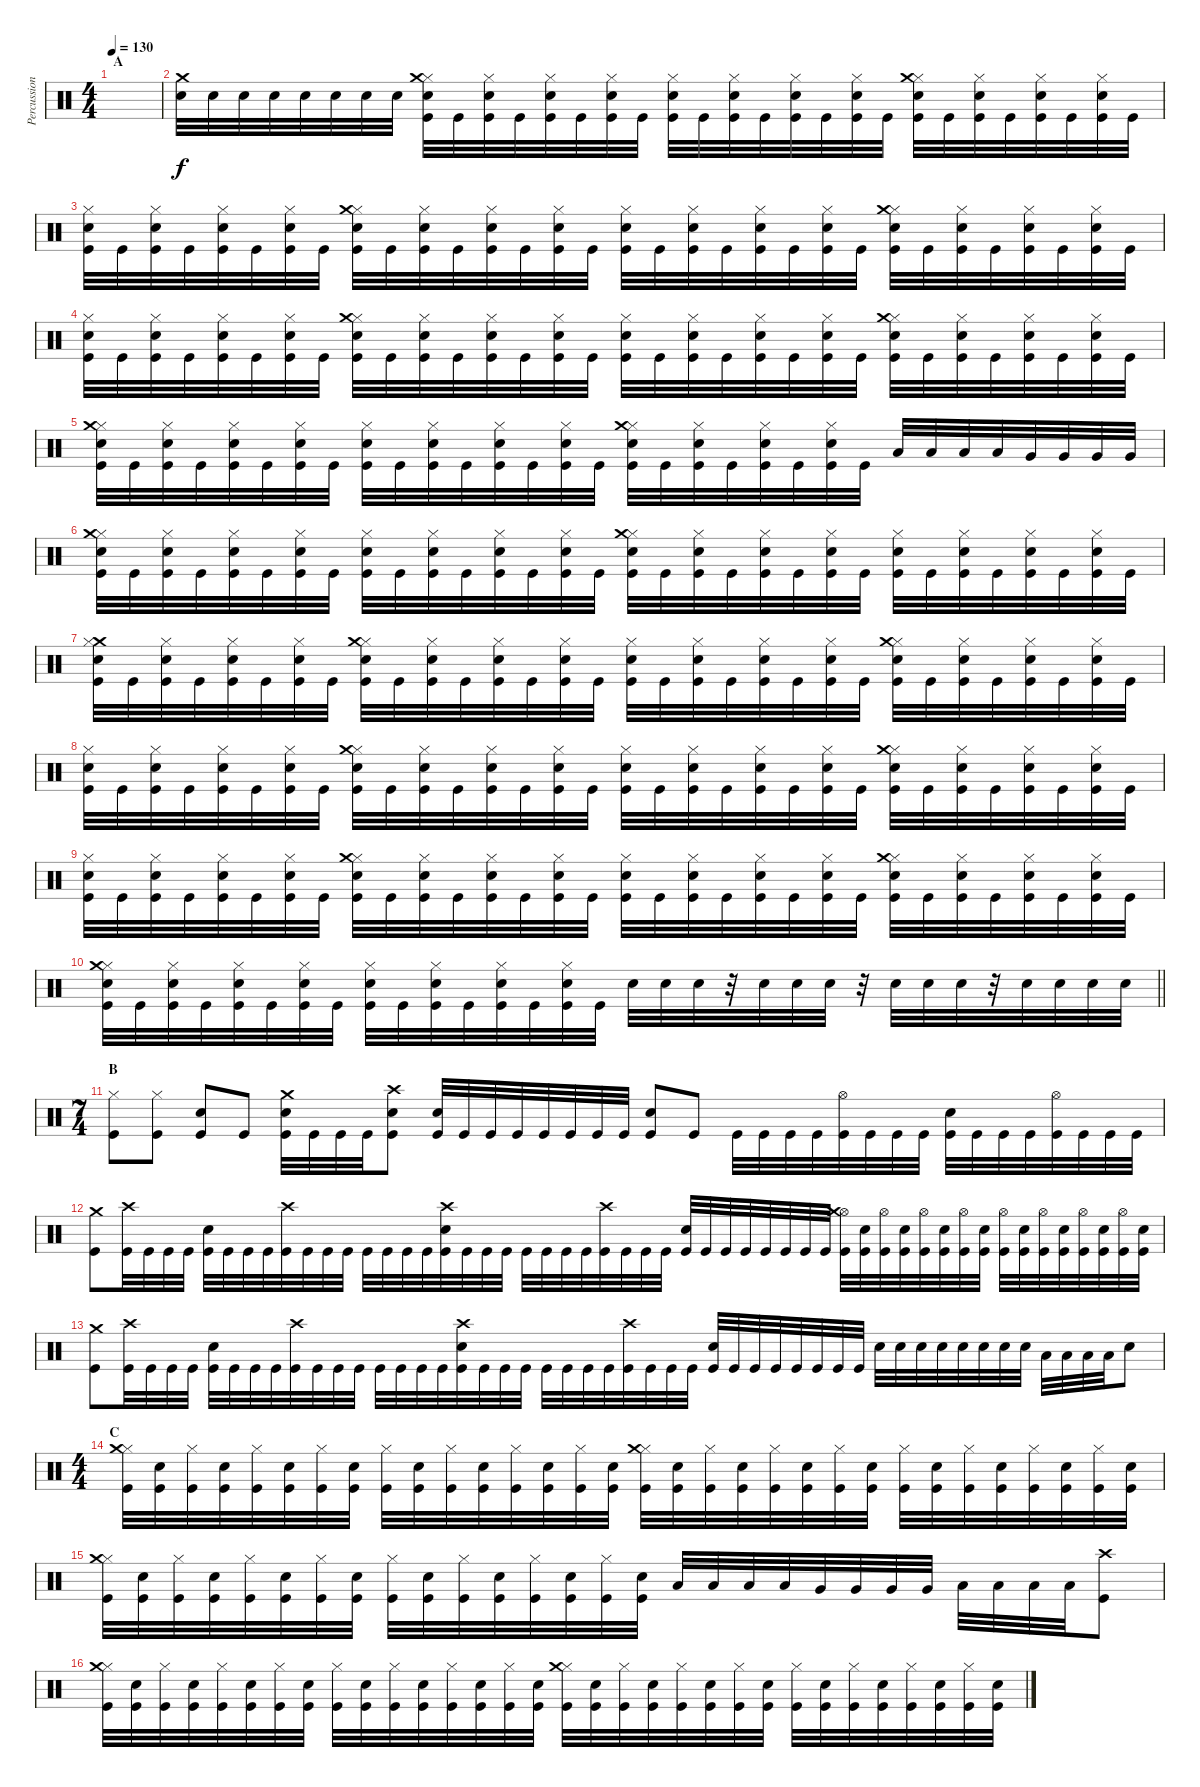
\track ("Percussion" "Percussion") {instrument percussion}
\staff {score}
\articulation defaults
\ts (4 4)
\section ("" "A")
\tempo 130
\clef neutral
\ks c
|
("Snare (hit) 2" "Crash medium (hit)").32 "Snare (hit) 2".32 "Snare (hit) 2".32 "Snare (hit) 2".32 "Snare (hit) 2".32 "Snare (hit) 2".32 "Snare (hit) 2".32 "Snare (hit) 2".32 ("Kick (hit)" "Snare (hit) 2" "Hi-Hat (closed)" "Crash medium (hit)").32 "Kick (hit)".32 ("Kick (hit)" "Snare (hit) 2" "Hi-Hat (closed)").32 "Kick (hit)".32 ("Kick (hit)" "Snare (hit) 2" "Hi-Hat (closed)").32 "Kick (hit)".32 ("Kick (hit)" "Snare (hit) 2" "Hi-Hat (closed)").32 "Kick (hit)".32 ("Kick (hit)" "Snare (hit) 2" "Hi-Hat (closed)").32 "Kick (hit)".32 ("Kick (hit)" "Snare (hit) 2" "Hi-Hat (closed)").32 "Kick (hit)".32 ("Kick (hit)" "Snare (hit) 2" "Hi-Hat (closed)").32 "Kick (hit)".32 ("Kick (hit)" "Snare (hit) 2" "Hi-Hat (closed)").32 "Kick (hit)".32 ("Kick (hit)" "Snare (hit) 2" "Hi-Hat (closed)" "Crash medium (hit)").32 "Kick (hit)".32 ("Kick (hit)" "Snare (hit) 2" "Hi-Hat (closed)").32 "Kick (hit)".32 ("Kick (hit)" "Snare (hit) 2" "Hi-Hat (closed)").32 "Kick (hit)".32 ("Kick (hit)" "Snare (hit) 2" "Hi-Hat (closed)").32 "Kick (hit)".32 |
("Kick (hit)" "Snare (hit) 2" "Hi-Hat (closed)").32 "Kick (hit)".32 ("Kick (hit)" "Snare (hit) 2" "Hi-Hat (closed)").32 "Kick (hit)".32 ("Kick (hit)" "Snare (hit) 2" "Hi-Hat (closed)").32 "Kick (hit)".32 ("Kick (hit)" "Snare (hit) 2" "Hi-Hat (closed)").32 "Kick (hit)".32 ("Kick (hit)" "Snare (hit) 2" "Hi-Hat (closed)" "Crash medium (hit)").32 "Kick (hit)".32 ("Kick (hit)" "Snare (hit) 2" "Hi-Hat (closed)").32 "Kick (hit)".32 ("Kick (hit)" "Snare (hit) 2" "Hi-Hat (closed)").32 "Kick (hit)".32 ("Kick (hit)" "Snare (hit) 2" "Hi-Hat (closed)").32 "Kick (hit)".32 ("Kick (hit)" "Snare (hit) 2" "Hi-Hat (closed)").32 "Kick (hit)".32 ("Kick (hit)" "Snare (hit) 2" "Hi-Hat (closed)").32 "Kick (hit)".32 ("Kick (hit)" "Snare (hit) 2" "Hi-Hat (closed)").32 "Kick (hit)".32 ("Kick (hit)" "Snare (hit) 2" "Hi-Hat (closed)").32 "Kick (hit)".32 ("Kick (hit)" "Snare (hit) 2" "Hi-Hat (closed)" "Crash medium (hit)").32 "Kick (hit)".32 ("Kick (hit)" "Snare (hit) 2" "Hi-Hat (closed)").32 "Kick (hit)".32 ("Kick (hit)" "Snare (hit) 2" "Hi-Hat (closed)").32 "Kick (hit)".32 ("Kick (hit)" "Snare (hit) 2" "Hi-Hat (closed)").32 "Kick (hit)".32 |
("Kick (hit)" "Snare (hit) 2" "Hi-Hat (closed)").32 "Kick (hit)".32 ("Kick (hit)" "Snare (hit) 2" "Hi-Hat (closed)").32 "Kick (hit)".32 ("Kick (hit)" "Snare (hit) 2" "Hi-Hat (closed)").32 "Kick (hit)".32 ("Kick (hit)" "Snare (hit) 2" "Hi-Hat (closed)").32 "Kick (hit)".32 ("Kick (hit)" "Snare (hit) 2" "Hi-Hat (closed)" "Crash medium (hit)").32 "Kick (hit)".32 ("Kick (hit)" "Snare (hit) 2" "Hi-Hat (closed)").32 "Kick (hit)".32 ("Kick (hit)" "Snare (hit) 2" "Hi-Hat (closed)").32 "Kick (hit)".32 ("Kick (hit)" "Snare (hit) 2" "Hi-Hat (closed)").32 "Kick (hit)".32 ("Kick (hit)" "Snare (hit) 2" "Hi-Hat (closed)").32 "Kick (hit)".32 ("Kick (hit)" "Snare (hit) 2" "Hi-Hat (closed)").32 "Kick (hit)".32 ("Kick (hit)" "Snare (hit) 2" "Hi-Hat (closed)").32 "Kick (hit)".32 ("Kick (hit)" "Snare (hit) 2" "Hi-Hat (closed)").32 "Kick (hit)".32 ("Kick (hit)" "Snare (hit) 2" "Hi-Hat (closed)" "Crash medium (hit)").32 "Kick (hit)".32 ("Kick (hit)" "Snare (hit) 2" "Hi-Hat (closed)").32 "Kick (hit)".32 ("Kick (hit)" "Snare (hit) 2" "Hi-Hat (closed)").32 "Kick (hit)".32 ("Kick (hit)" "Snare (hit) 2" "Hi-Hat (closed)").32 "Kick (hit)".32 |
("Kick (hit)" "Snare (hit) 2" "Hi-Hat (closed)" "Crash medium (hit)").32 "Kick (hit)".32 ("Kick (hit)" "Snare (hit) 2" "Hi-Hat (closed)").32 "Kick (hit)".32 ("Kick (hit)" "Snare (hit) 2" "Hi-Hat (closed)").32 "Kick (hit)".32 ("Kick (hit)" "Snare (hit) 2" "Hi-Hat (closed)").32 "Kick (hit)".32 ("Kick (hit)" "Snare (hit) 2" "Hi-Hat (closed)").32 "Kick (hit)".32 ("Kick (hit)" "Snare (hit) 2" "Hi-Hat (closed)").32 "Kick (hit)".32 ("Kick (hit)" "Snare (hit) 2" "Hi-Hat (closed)").32 "Kick (hit)".32 ("Kick (hit)" "Snare (hit) 2" "Hi-Hat (closed)").32 "Kick (hit)".32 ("Kick (hit)" "Snare (hit) 2" "Hi-Hat (closed)" "Crash medium (hit)").32 "Kick (hit)".32 ("Kick (hit)" "Snare (hit) 2" "Hi-Hat (closed)").32 "Kick (hit)".32 ("Kick (hit)" "Snare (hit) 2" "Hi-Hat (closed)").32 "Kick (hit)".32 ("Kick (hit)" "Snare (hit) 2" "Hi-Hat (closed)").32 "Kick (hit)".32 "Low Tom (hit)".32 "Low Tom (hit)".32 "Low Tom (hit)".32 "Low Tom (hit)".32 "Very Low Tom (hit)".32 "Very Low Tom (hit)".32 "Very Low Tom (hit)".32 "Very Low Tom (hit)".32 |
("Kick (hit)" "Snare (hit) 2" "Hi-Hat (closed)" "Crash medium (hit)").32 "Kick (hit)".32 ("Kick (hit)" "Snare (hit) 2" "Hi-Hat (closed)").32 "Kick (hit)".32 ("Kick (hit)" "Snare (hit) 2" "Hi-Hat (closed)").32 "Kick (hit)".32 ("Kick (hit)" "Snare (hit) 2" "Hi-Hat (closed)").32 "Kick (hit)".32 ("Kick (hit)" "Snare (hit) 2" "Hi-Hat (closed)").32 "Kick (hit)".32 ("Kick (hit)" "Snare (hit) 2" "Hi-Hat (closed)").32 "Kick (hit)".32 ("Kick (hit)" "Snare (hit) 2" "Hi-Hat (closed)").32 "Kick (hit)".32 ("Kick (hit)" "Snare (hit) 2" "Hi-Hat (closed)").32 "Kick (hit)".32 ("Kick (hit)" "Snare (hit) 2" "Hi-Hat (closed)" "Crash medium (hit)").32 "Kick (hit)".32 ("Kick (hit)" "Snare (hit) 2" "Hi-Hat (closed)").32 "Kick (hit)".32 ("Kick (hit)" "Snare (hit) 2" "Hi-Hat (closed)").32 "Kick (hit)".32 ("Kick (hit)" "Snare (hit) 2" "Hi-Hat (closed)").32 "Kick (hit)".32 ("Kick (hit)" "Snare (hit) 2" "Hi-Hat (closed)").32 "Kick (hit)".32 ("Kick (hit)" "Snare (hit) 2" "Hi-Hat (closed)").32 "Kick (hit)".32 ("Kick (hit)" "Snare (hit) 2" "Hi-Hat (closed)").32 "Kick (hit)".32 ("Kick (hit)" "Snare (hit) 2" "Hi-Hat (closed)").32 "Kick (hit)".32 |
("Kick (hit)" "Snare (hit) 2" "Crash medium (hit)" "Hi-Hat (closed)").32 "Kick (hit)".32 ("Kick (hit)" "Snare (hit) 2" "Hi-Hat (closed)").32 "Kick (hit)".32 ("Kick (hit)" "Snare (hit) 2" "Hi-Hat (closed)").32 "Kick (hit)".32 ("Kick (hit)" "Snare (hit) 2" "Hi-Hat (closed)").32 "Kick (hit)".32 ("Kick (hit)" "Snare (hit) 2" "Hi-Hat (closed)" "Crash medium (hit)").32 "Kick (hit)".32 ("Kick (hit)" "Snare (hit) 2" "Hi-Hat (closed)").32 "Kick (hit)".32 ("Kick (hit)" "Snare (hit) 2" "Hi-Hat (closed)").32 "Kick (hit)".32 ("Kick (hit)" "Snare (hit) 2" "Hi-Hat (closed)").32 "Kick (hit)".32 ("Kick (hit)" "Snare (hit) 2" "Hi-Hat (closed)").32 "Kick (hit)".32 ("Kick (hit)" "Snare (hit) 2" "Hi-Hat (closed)").32 "Kick (hit)".32 ("Kick (hit)" "Snare (hit) 2" "Hi-Hat (closed)").32 "Kick (hit)".32 ("Kick (hit)" "Snare (hit) 2" "Hi-Hat (closed)").32 "Kick (hit)".32 ("Kick (hit)" "Snare (hit) 2" "Hi-Hat (closed)" "Crash medium (hit)").32 "Kick (hit)".32 ("Kick (hit)" "Snare (hit) 2" "Hi-Hat (closed)").32 "Kick (hit)".32 ("Kick (hit)" "Snare (hit) 2" "Hi-Hat (closed)").32 "Kick (hit)".32 ("Kick (hit)" "Snare (hit) 2" "Hi-Hat (closed)").32 "Kick (hit)".32 |
("Kick (hit)" "Snare (hit) 2" "Hi-Hat (closed)").32 "Kick (hit)".32 ("Kick (hit)" "Snare (hit) 2" "Hi-Hat (closed)").32 "Kick (hit)".32 ("Kick (hit)" "Snare (hit) 2" "Hi-Hat (closed)").32 "Kick (hit)".32 ("Kick (hit)" "Snare (hit) 2" "Hi-Hat (closed)").32 "Kick (hit)".32 ("Kick (hit)" "Snare (hit) 2" "Hi-Hat (closed)" "Crash medium (hit)").32 "Kick (hit)".32 ("Kick (hit)" "Snare (hit) 2" "Hi-Hat (closed)").32 "Kick (hit)".32 ("Kick (hit)" "Snare (hit) 2" "Hi-Hat (closed)").32 "Kick (hit)".32 ("Kick (hit)" "Snare (hit) 2" "Hi-Hat (closed)").32 "Kick (hit)".32 ("Kick (hit)" "Snare (hit) 2" "Hi-Hat (closed)").32 "Kick (hit)".32 ("Kick (hit)" "Snare (hit) 2" "Hi-Hat (closed)").32 "Kick (hit)".32 ("Kick (hit)" "Snare (hit) 2" "Hi-Hat (closed)").32 "Kick (hit)".32 ("Kick (hit)" "Snare (hit) 2" "Hi-Hat (closed)").32 "Kick (hit)".32 ("Kick (hit)" "Snare (hit) 2" "Hi-Hat (closed)" "Crash medium (hit)").32 "Kick (hit)".32 ("Kick (hit)" "Snare (hit) 2" "Hi-Hat (closed)").32 "Kick (hit)".32 ("Kick (hit)" "Snare (hit) 2" "Hi-Hat (closed)").32 "Kick (hit)".32 ("Kick (hit)" "Snare (hit) 2" "Hi-Hat (closed)").32 "Kick (hit)".32 |
("Kick (hit)" "Snare (hit) 2" "Hi-Hat (closed)").32 "Kick (hit)".32 ("Kick (hit)" "Snare (hit) 2" "Hi-Hat (closed)").32 "Kick (hit)".32 ("Kick (hit)" "Snare (hit) 2" "Hi-Hat (closed)").32 "Kick (hit)".32 ("Kick (hit)" "Snare (hit) 2" "Hi-Hat (closed)").32 "Kick (hit)".32 ("Kick (hit)" "Snare (hit) 2" "Hi-Hat (closed)" "Crash medium (hit)").32 "Kick (hit)".32 ("Kick (hit)" "Snare (hit) 2" "Hi-Hat (closed)").32 "Kick (hit)".32 ("Kick (hit)" "Snare (hit) 2" "Hi-Hat (closed)").32 "Kick (hit)".32 ("Kick (hit)" "Snare (hit) 2" "Hi-Hat (closed)").32 "Kick (hit)".32 ("Kick (hit)" "Snare (hit) 2" "Hi-Hat (closed)").32 "Kick (hit)".32 ("Kick (hit)" "Snare (hit) 2" "Hi-Hat (closed)").32 "Kick (hit)".32 ("Kick (hit)" "Snare (hit) 2" "Hi-Hat (closed)").32 "Kick (hit)".32 ("Kick (hit)" "Snare (hit) 2" "Hi-Hat (closed)").32 "Kick (hit)".32 ("Kick (hit)" "Snare (hit) 2" "Hi-Hat (closed)" "Crash medium (hit)").32 "Kick (hit)".32 ("Kick (hit)" "Snare (hit) 2" "Hi-Hat (closed)").32 "Kick (hit)".32 ("Kick (hit)" "Snare (hit) 2" "Hi-Hat (closed)").32 "Kick (hit)".32 ("Kick (hit)" "Snare (hit) 2" "Hi-Hat (closed)").32 "Kick (hit)".32 |
\barLineRight lightlight
("Kick (hit)" "Snare (hit) 2" "Hi-Hat (closed)" "Crash medium (hit)").32 "Kick (hit)".32 ("Kick (hit)" "Snare (hit) 2" "Hi-Hat (closed)").32 "Kick (hit)".32 ("Kick (hit)" "Snare (hit) 2" "Hi-Hat (closed)").32 "Kick (hit)".32 ("Kick (hit)" "Snare (hit) 2" "Hi-Hat (closed)").32 "Kick (hit)".32 ("Kick (hit)" "Snare (hit) 2" "Hi-Hat (closed)").32 "Kick (hit)".32 ("Kick (hit)" "Snare (hit) 2" "Hi-Hat (closed)").32 "Kick (hit)".32 ("Kick (hit)" "Snare (hit) 2" "Hi-Hat (closed)").32 "Kick (hit)".32 ("Kick (hit)" "Snare (hit) 2" "Hi-Hat (closed)").32 "Kick (hit)".32 "Snare (hit) 2".32 "Snare (hit) 2".32 "Snare (hit) 2".32 r.32 "Snare (hit) 2".32 "Snare (hit) 2".32 "Snare (hit) 2".32 r.32 "Snare (hit) 2".32 "Snare (hit) 2".32 "Snare (hit) 2".32 r.32 "Snare (hit) 2".32 "Snare (hit) 2".32 "Snare (hit) 2".32 "Snare (hit) 2".32 |
\ts (7 4)
\section ("" "B")
("Kick (hit)" "Hi-Hat (closed)").8 ("Kick (hit)" "Hi-Hat (closed)").8 ("Kick (hit)" "Snare (hit) 2").8 "Kick (hit)".8 ("Kick (hit)" "Snare (hit) 2" "Crash medium (hit)").32 "Kick (hit)".32 "Kick (hit)".32 "Kick (hit)".32 ("Kick (hit)" "Snare (hit) 2" "Crash high (hit)").8 ("Kick (hit)" "Snare (hit) 2").32 "Kick (hit)".32 "Kick (hit)".32 "Kick (hit)".32 "Kick (hit)".32 "Kick (hit)".32 "Kick (hit)".32 "Kick (hit)".32 ("Kick (hit)" "Snare (hit) 2").8 "Kick (hit)".8 "Kick (hit)".32 "Kick (hit)".32 "Kick (hit)".32 "Kick (hit)".32 ("Kick (hit)" "Hi-Hat (open)").32 "Kick (hit)".32 "Kick (hit)".32 "Kick (hit)".32 ("Kick (hit)" "Snare (hit) 2").32 "Kick (hit)".32 "Kick (hit)".32 "Kick (hit)".32 ("Kick (hit)" "Hi-Hat (open)").32 "Kick (hit)".32 "Kick (hit)".32 "Kick (hit)".32 |
("Kick (hit)" "Crash medium (hit)").8 ("Kick (hit)" "Crash high (hit)").32 "Kick (hit)".32 "Kick (hit)".32 "Kick (hit)".32 ("Kick (hit)" "Snare (hit) 2").32 "Kick (hit)".32 "Kick (hit)".32 "Kick (hit)".32 ("Kick (hit)" "Crash high (hit)").32 "Kick (hit)".32 "Kick (hit)".32 "Kick (hit)".32 "Kick (hit)".32 "Kick (hit)".32 "Kick (hit)".32 "Kick (hit)".32 ("Kick (hit)" "Crash high (hit)" "Snare (hit) 2").32 "Kick (hit)".32 "Kick (hit)".32 "Kick (hit)".32 "Kick (hit)".32 "Kick (hit)".32 "Kick (hit)".32 "Kick (hit)".32 ("Kick (hit)" "Crash high (hit)").32 "Kick (hit)".32 "Kick (hit)".32 "Kick (hit)".32 ("Kick (hit)" "Snare (hit) 2").32 "Kick (hit)".32 "Kick (hit)".32 "Kick (hit)".32 "Kick (hit)".32 "Kick (hit)".32 "Kick (hit)".32 "Kick (hit)".32 ("Kick (hit)" "Hi-Hat (open)" "Crash medium (hit)").32 ("Kick (hit)" "Snare (hit) 2").32 ("Kick (hit)" "Hi-Hat (open)").32 ("Kick (hit)" "Snare (hit) 2").32 ("Kick (hit)" "Hi-Hat (open)").32 ("Kick (hit)" "Snare (hit) 2").32 ("Kick (hit)" "Hi-Hat (open)").32 ("Kick (hit)" "Snare (hit) 2").32 ("Kick (hit)" "Hi-Hat (open)").32 ("Kick (hit)" "Snare (hit) 2").32 ("Kick (hit)" "Hi-Hat (open)").32 ("Kick (hit)" "Snare (hit) 2").32 ("Kick (hit)" "Hi-Hat (open)").32 ("Kick (hit)" "Snare (hit) 2").32 ("Kick (hit)" "Hi-Hat (open)").32 ("Kick (hit)" "Snare (hit) 2").32 |
("Kick (hit)" "Crash medium (hit)").8 ("Kick (hit)" "Crash high (hit)").32 "Kick (hit)".32 "Kick (hit)".32 "Kick (hit)".32 ("Kick (hit)" "Snare (hit) 2").32 "Kick (hit)".32 "Kick (hit)".32 "Kick (hit)".32 ("Kick (hit)" "Crash high (hit)").32 "Kick (hit)".32 "Kick (hit)".32 "Kick (hit)".32 "Kick (hit)".32 "Kick (hit)".32 "Kick (hit)".32 "Kick (hit)".32 ("Kick (hit)" "Crash high (hit)" "Snare (hit) 2").32 "Kick (hit)".32 "Kick (hit)".32 "Kick (hit)".32 "Kick (hit)".32 "Kick (hit)".32 "Kick (hit)".32 "Kick (hit)".32 ("Kick (hit)" "Crash high (hit)").32 "Kick (hit)".32 "Kick (hit)".32 "Kick (hit)".32 ("Kick (hit)" "Snare (hit) 2").32 "Kick (hit)".32 "Kick (hit)".32 "Kick (hit)".32 "Kick (hit)".32 "Kick (hit)".32 "Kick (hit)".32 "Kick (hit)".32 "Snare (hit) 2".32 "Snare (hit) 2".32 "Snare (hit) 2".32 "Snare (hit) 2".32 "Snare (hit) 2".32 "Snare (hit) 2".32 "Snare (hit) 2".32 "Snare (hit) 2".32 "Low Floor Tom (hit)".32 "Low Floor Tom (hit)".32 "Low Floor Tom (hit)".32 "Low Floor Tom (hit)".32 "Snare (hit) 2".8 |
\ts (4 4)
\section ("" "C")
("Kick (hit)" "Hi-Hat (closed)" "Crash medium (hit)").32 ("Kick (hit)" "Snare (hit) 2").32 ("Kick (hit)" "Hi-Hat (closed)").32 ("Kick (hit)" "Snare (hit) 2").32 ("Kick (hit)" "Hi-Hat (closed)").32 ("Kick (hit)" "Snare (hit) 2").32 ("Kick (hit)" "Hi-Hat (closed)").32 ("Kick (hit)" "Snare (hit) 2").32 ("Kick (hit)" "Hi-Hat (closed)").32 ("Kick (hit)" "Snare (hit) 2").32 ("Kick (hit)" "Hi-Hat (closed)").32 ("Kick (hit)" "Snare (hit) 2").32 ("Kick (hit)" "Hi-Hat (closed)").32 ("Kick (hit)" "Snare (hit) 2").32 ("Kick (hit)" "Hi-Hat (closed)").32 ("Kick (hit)" "Snare (hit) 2").32 ("Kick (hit)" "Hi-Hat (closed)" "Crash medium (hit)").32 ("Kick (hit)" "Snare (hit) 2").32 ("Kick (hit)" "Hi-Hat (closed)").32 ("Kick (hit)" "Snare (hit) 2").32 ("Kick (hit)" "Hi-Hat (closed)").32 ("Kick (hit)" "Snare (hit) 2").32 ("Kick (hit)" "Hi-Hat (closed)").32 ("Kick (hit)" "Snare (hit) 2").32 ("Kick (hit)" "Hi-Hat (closed)").32 ("Kick (hit)" "Snare (hit) 2").32 ("Kick (hit)" "Hi-Hat (closed)").32 ("Kick (hit)" "Snare (hit) 2").32 ("Kick (hit)" "Hi-Hat (closed)").32 ("Kick (hit)" "Snare (hit) 2").32 ("Kick (hit)" "Hi-Hat (closed)").32 ("Kick (hit)" "Snare (hit) 2").32 |
("Kick (hit)" "Hi-Hat (closed)" "Crash medium (hit)").32 ("Kick (hit)" "Snare (hit) 2").32 ("Kick (hit)" "Hi-Hat (closed)").32 ("Kick (hit)" "Snare (hit) 2").32 ("Kick (hit)" "Hi-Hat (closed)").32 ("Kick (hit)" "Snare (hit) 2").32 ("Kick (hit)" "Hi-Hat (closed)").32 ("Kick (hit)" "Snare (hit) 2").32 ("Kick (hit)" "Hi-Hat (closed)").32 ("Kick (hit)" "Snare (hit) 2").32 ("Kick (hit)" "Hi-Hat (closed)").32 ("Kick (hit)" "Snare (hit) 2").32 ("Kick (hit)" "Hi-Hat (closed)").32 ("Kick (hit)" "Snare (hit) 2").32 ("Kick (hit)" "Hi-Hat (closed)").32 ("Kick (hit)" "Snare (hit) 2").32 "Low Tom (hit)".32 "Low Tom (hit)".32 "Low Tom (hit)".32 "Low Tom (hit)".32 "Very Low Tom (hit)".32 "Very Low Tom (hit)".32 "Very Low Tom (hit)".32 "Very Low Tom (hit)".32 "Low Floor Tom (hit)".32 "Low Floor Tom (hit)".32 "Low Floor Tom (hit)".32 "Low Floor Tom (hit)".32 ("Kick (hit)" "Crash high (hit)").8 |
("Kick (hit)" "Hi-Hat (closed)" "Crash medium (hit)").32 ("Kick (hit)" "Snare (hit) 2").32 ("Kick (hit)" "Hi-Hat (closed)").32 ("Kick (hit)" "Snare (hit) 2").32 ("Kick (hit)" "Hi-Hat (closed)").32 ("Kick (hit)" "Snare (hit) 2").32 ("Kick (hit)" "Hi-Hat (closed)").32 ("Kick (hit)" "Snare (hit) 2").32 ("Kick (hit)" "Hi-Hat (closed)").32 ("Kick (hit)" "Snare (hit) 2").32 ("Kick (hit)" "Hi-Hat (closed)").32 ("Kick (hit)" "Snare (hit) 2").32 ("Kick (hit)" "Hi-Hat (closed)").32 ("Kick (hit)" "Snare (hit) 2").32 ("Kick (hit)" "Hi-Hat (closed)").32 ("Kick (hit)" "Snare (hit) 2").32 ("Kick (hit)" "Hi-Hat (closed)" "Crash medium (hit)").32 ("Kick (hit)" "Snare (hit) 2").32 ("Kick (hit)" "Hi-Hat (closed)").32 ("Kick (hit)" "Snare (hit) 2").32 ("Kick (hit)" "Hi-Hat (closed)").32 ("Kick (hit)" "Snare (hit) 2").32 ("Kick (hit)" "Hi-Hat (closed)").32 ("Kick (hit)" "Snare (hit) 2").32 ("Kick (hit)" "Hi-Hat (closed)").32 ("Kick (hit)" "Snare (hit) 2").32 ("Kick (hit)" "Hi-Hat (closed)").32 ("Kick (hit)" "Snare (hit) 2").32 ("Kick (hit)" "Hi-Hat (closed)").32 ("Kick (hit)" "Snare (hit) 2").32 ("Kick (hit)" "Hi-Hat (closed)").32 ("Kick (hit)" "Snare (hit) 2").32
